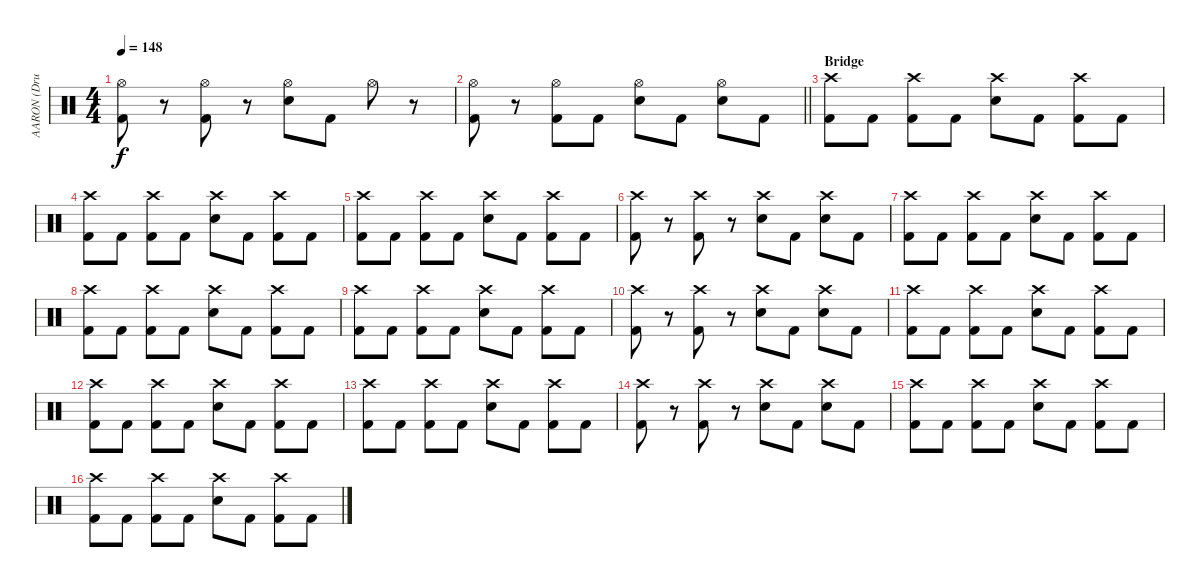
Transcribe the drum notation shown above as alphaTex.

\track ("AARON (Drums)" "AARON (Dru") {instrument percussion}
\staff {score}
\articulation defaults
\ts (4 4)
\tempo 148
\clef neutral
\ks c
("Hi-Hat (open)" "Kick (hit) 2").8{dy f} r.8 ("Hi-Hat (open)" "Kick (hit) 2").8 r.8 ("Hi-Hat (open)" "Electric Snare (hit)").8 "Kick (hit) 2".8 "Hi-Hat (open)".8 r.8 |
\barLineRight lightlight
("Hi-Hat (open)" "Kick (hit) 2").8 r.8 ("Hi-Hat (open)" "Kick (hit) 2").8 "Kick (hit) 2".8 ("Hi-Hat (open)" "Electric Snare (hit)").8 "Kick (hit) 2".8 ("Hi-Hat (open)" "Electric Snare (hit)").8 "Kick (hit) 2".8 |
\section ("" "Bridge")
("Crash high (hit)" "Kick (hit) 2").8 "Kick (hit) 2".8 ("Crash high (hit)" "Kick (hit) 2").8 "Kick (hit) 2".8 ("Crash high (hit)" "Electric Snare (hit)").8 "Kick (hit) 2".8 ("Crash high (hit)" "Kick (hit) 2").8 "Kick (hit) 2".8 |
("Crash high (hit)" "Kick (hit) 2").8 "Kick (hit) 2".8 ("Crash high (hit)" "Kick (hit) 2").8 "Kick (hit) 2".8 ("Crash high (hit)" "Electric Snare (hit)").8 "Kick (hit) 2".8 ("Crash high (hit)" "Kick (hit) 2").8 "Kick (hit) 2".8 |
("Crash high (hit)" "Kick (hit) 2").8 "Kick (hit) 2".8 ("Crash high (hit)" "Kick (hit) 2").8 "Kick (hit) 2".8 ("Crash high (hit)" "Electric Snare (hit)").8 "Kick (hit) 2".8 ("Crash high (hit)" "Kick (hit) 2").8 "Kick (hit) 2".8 |
("Crash high (hit)" "Kick (hit) 2").8 r.8 ("Crash high (hit)" "Kick (hit) 2").8 r.8 ("Crash high (hit)" "Electric Snare (hit)").8 "Kick (hit) 2".8 ("Crash high (hit)" "Electric Snare (hit)").8 "Kick (hit) 2".8 |
("Crash high (hit)" "Kick (hit) 2").8 "Kick (hit) 2".8 ("Crash high (hit)" "Kick (hit) 2").8 "Kick (hit) 2".8 ("Crash high (hit)" "Electric Snare (hit)").8 "Kick (hit) 2".8 ("Crash high (hit)" "Kick (hit) 2").8 "Kick (hit) 2".8 |
("Crash high (hit)" "Kick (hit) 2").8 "Kick (hit) 2".8 ("Crash high (hit)" "Kick (hit) 2").8 "Kick (hit) 2".8 ("Crash high (hit)" "Electric Snare (hit)").8 "Kick (hit) 2".8 ("Crash high (hit)" "Kick (hit) 2").8 "Kick (hit) 2".8 |
("Crash high (hit)" "Kick (hit) 2").8 "Kick (hit) 2".8 ("Crash high (hit)" "Kick (hit) 2").8 "Kick (hit) 2".8 ("Crash high (hit)" "Electric Snare (hit)").8 "Kick (hit) 2".8 ("Crash high (hit)" "Kick (hit) 2").8 "Kick (hit) 2".8 |
("Crash high (hit)" "Kick (hit) 2").8 r.8 ("Crash high (hit)" "Kick (hit) 2").8 r.8 ("Crash high (hit)" "Electric Snare (hit)").8 "Kick (hit) 2".8 ("Crash high (hit)" "Electric Snare (hit)").8 "Kick (hit) 2".8 |
("Crash high (hit)" "Kick (hit) 2").8 "Kick (hit) 2".8 ("Crash high (hit)" "Kick (hit) 2").8 "Kick (hit) 2".8 ("Crash high (hit)" "Electric Snare (hit)").8 "Kick (hit) 2".8 ("Crash high (hit)" "Kick (hit) 2").8 "Kick (hit) 2".8 |
("Crash high (hit)" "Kick (hit) 2").8 "Kick (hit) 2".8 ("Crash high (hit)" "Kick (hit) 2").8 "Kick (hit) 2".8 ("Crash high (hit)" "Electric Snare (hit)").8 "Kick (hit) 2".8 ("Crash high (hit)" "Kick (hit) 2").8 "Kick (hit) 2".8 |
("Crash high (hit)" "Kick (hit) 2").8 "Kick (hit) 2".8 ("Crash high (hit)" "Kick (hit) 2").8 "Kick (hit) 2".8 ("Crash high (hit)" "Electric Snare (hit)").8 "Kick (hit) 2".8 ("Crash high (hit)" "Kick (hit) 2").8 "Kick (hit) 2".8 |
("Crash high (hit)" "Kick (hit) 2").8 r.8 ("Crash high (hit)" "Kick (hit) 2").8 r.8 ("Crash high (hit)" "Electric Snare (hit)").8 "Kick (hit) 2".8 ("Crash high (hit)" "Electric Snare (hit)").8 "Kick (hit) 2".8 |
("Crash high (hit)" "Kick (hit) 2").8 "Kick (hit) 2".8 ("Crash high (hit)" "Kick (hit) 2").8 "Kick (hit) 2".8 ("Crash high (hit)" "Electric Snare (hit)").8 "Kick (hit) 2".8 ("Crash high (hit)" "Kick (hit) 2").8 "Kick (hit) 2".8 |
("Crash high (hit)" "Kick (hit) 2").8 "Kick (hit) 2".8 ("Crash high (hit)" "Kick (hit) 2").8 "Kick (hit) 2".8 ("Crash high (hit)" "Electric Snare (hit)").8 "Kick (hit) 2".8 ("Crash high (hit)" "Kick (hit) 2").8 "Kick (hit) 2".8
